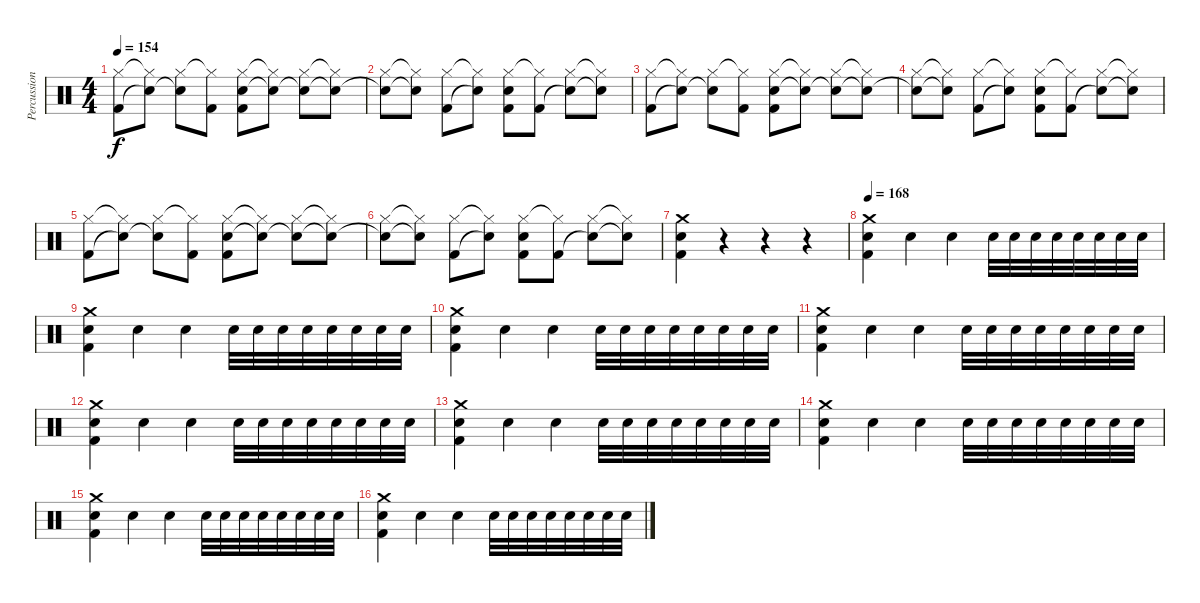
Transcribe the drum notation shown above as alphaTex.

\track ("Percussion" "Percussion") {instrument percussion}
\staff {score}
\articulation defaults
\ts (4 4)
\tempo 154
\clef neutral
\ks c
("Hi-Hat (closed)" "Kick (hit) 2").8{dy f} ("Hi-Hat (closed)"{t} "Snare (hit)"{t}).8 ("Hi-Hat (closed)" "Snare (hit)"{t}).8 ("Hi-Hat (closed)"{t} "Kick (hit) 2").8 ("Hi-Hat (closed)" "Electric Snare (hit)" "Kick (hit) 2").8 ("Hi-Hat (closed)"{t} "Snare (hit)"{t}).8 ("Hi-Hat (closed)" "Snare (hit)"{t}).8 ("Hi-Hat (closed)"{t} "Snare (hit)"{t}).8 |
("Hi-Hat (closed)" "Snare (hit)"{t}).8 ("Hi-Hat (closed)"{t} "Snare (hit)"{t}).8 ("Hi-Hat (closed)" "Kick (hit) 2").8 ("Hi-Hat (closed)"{t} "Snare (hit)"{t}).8 ("Hi-Hat (closed)" "Electric Snare (hit)" "Kick (hit) 2").8 ("Hi-Hat (closed)"{t} "Kick (hit) 2").8 ("Hi-Hat (closed)" "Snare (hit)"{t}).8 ("Hi-Hat (closed)"{t} "Snare (hit)"{t}).8 |
("Hi-Hat (closed)" "Kick (hit) 2").8 ("Hi-Hat (closed)"{t} "Snare (hit)"{t}).8 ("Hi-Hat (closed)" "Snare (hit)"{t}).8 ("Hi-Hat (closed)"{t} "Kick (hit) 2").8 ("Hi-Hat (closed)" "Electric Snare (hit)" "Kick (hit) 2").8 ("Hi-Hat (closed)"{t} "Snare (hit)"{t}).8 ("Hi-Hat (closed)" "Snare (hit)"{t}).8 ("Hi-Hat (closed)"{t} "Snare (hit)"{t}).8 |
("Hi-Hat (closed)" "Snare (hit)"{t}).8 ("Hi-Hat (closed)"{t} "Snare (hit)"{t}).8 ("Hi-Hat (closed)" "Kick (hit) 2").8 ("Hi-Hat (closed)"{t} "Snare (hit)"{t}).8 ("Hi-Hat (closed)" "Electric Snare (hit)" "Kick (hit) 2").8 ("Hi-Hat (closed)"{t} "Kick (hit) 2").8 ("Hi-Hat (closed)" "Snare (hit)"{t}).8 ("Hi-Hat (closed)"{t} "Snare (hit)"{t}).8 |
("Hi-Hat (closed)" "Kick (hit) 2").8 ("Hi-Hat (closed)"{t} "Snare (hit)"{t}).8 ("Hi-Hat (closed)" "Snare (hit)"{t}).8 ("Hi-Hat (closed)"{t} "Kick (hit) 2").8 ("Hi-Hat (closed)" "Electric Snare (hit)" "Kick (hit) 2").8 ("Hi-Hat (closed)"{t} "Snare (hit)"{t}).8 ("Hi-Hat (closed)" "Snare (hit)"{t}).8 ("Hi-Hat (closed)"{t} "Snare (hit)"{t}).8 |
("Hi-Hat (closed)" "Snare (hit)"{t}).8 ("Hi-Hat (closed)"{t} "Snare (hit)"{t}).8 ("Hi-Hat (closed)" "Kick (hit) 2").8 ("Hi-Hat (closed)"{t} "Snare (hit)"{t}).8 ("Hi-Hat (closed)" "Electric Snare (hit)" "Kick (hit) 2").8 ("Hi-Hat (closed)"{t} "Kick (hit) 2").8 ("Hi-Hat (closed)" "Snare (hit)"{t}).8 ("Hi-Hat (closed)"{t} "Snare (hit)"{t}).8 |
("Crash medium (hit)" "Electric Snare (hit)" "Kick (hit) 2").4 r.4 r.4 r.4 |
\tempo 168
("Crash medium (hit)" "Electric Snare (hit)" "Kick (hit) 2").4 "Electric Snare (hit)".4 "Electric Snare (hit)".4 "Electric Snare (hit)".32 "Electric Snare (hit)".32 "Electric Snare (hit)".32 "Electric Snare (hit)".32 "Electric Snare (hit)".32 "Electric Snare (hit)".32 "Electric Snare (hit)".32 "Electric Snare (hit)".32 |
("Crash medium (hit)" "Electric Snare (hit)" "Kick (hit) 2").4 "Electric Snare (hit)".4 "Electric Snare (hit)".4 "Electric Snare (hit)".32 "Electric Snare (hit)".32 "Electric Snare (hit)".32 "Electric Snare (hit)".32 "Electric Snare (hit)".32 "Electric Snare (hit)".32 "Electric Snare (hit)".32 "Electric Snare (hit)".32 |
("Crash medium (hit)" "Electric Snare (hit)" "Kick (hit) 2").4 "Electric Snare (hit)".4 "Electric Snare (hit)".4 "Electric Snare (hit)".32 "Electric Snare (hit)".32 "Electric Snare (hit)".32 "Electric Snare (hit)".32 "Electric Snare (hit)".32 "Electric Snare (hit)".32 "Electric Snare (hit)".32 "Electric Snare (hit)".32 |
("Crash medium (hit)" "Electric Snare (hit)" "Kick (hit) 2").4 "Electric Snare (hit)".4 "Electric Snare (hit)".4 "Electric Snare (hit)".32 "Electric Snare (hit)".32 "Electric Snare (hit)".32 "Electric Snare (hit)".32 "Electric Snare (hit)".32 "Electric Snare (hit)".32 "Electric Snare (hit)".32 "Electric Snare (hit)".32 |
("Crash medium (hit)" "Electric Snare (hit)" "Kick (hit) 2").4 "Electric Snare (hit)".4 "Electric Snare (hit)".4 "Electric Snare (hit)".32 "Electric Snare (hit)".32 "Electric Snare (hit)".32 "Electric Snare (hit)".32 "Electric Snare (hit)".32 "Electric Snare (hit)".32 "Electric Snare (hit)".32 "Electric Snare (hit)".32 |
("Crash medium (hit)" "Electric Snare (hit)" "Kick (hit) 2").4 "Electric Snare (hit)".4 "Electric Snare (hit)".4 "Electric Snare (hit)".32 "Electric Snare (hit)".32 "Electric Snare (hit)".32 "Electric Snare (hit)".32 "Electric Snare (hit)".32 "Electric Snare (hit)".32 "Electric Snare (hit)".32 "Electric Snare (hit)".32 |
("Crash medium (hit)" "Electric Snare (hit)" "Kick (hit) 2").4 "Electric Snare (hit)".4 "Electric Snare (hit)".4 "Electric Snare (hit)".32 "Electric Snare (hit)".32 "Electric Snare (hit)".32 "Electric Snare (hit)".32 "Electric Snare (hit)".32 "Electric Snare (hit)".32 "Electric Snare (hit)".32 "Electric Snare (hit)".32 |
("Crash medium (hit)" "Electric Snare (hit)" "Kick (hit) 2").4 "Electric Snare (hit)".4 "Electric Snare (hit)".4 "Electric Snare (hit)".32 "Electric Snare (hit)".32 "Electric Snare (hit)".32 "Electric Snare (hit)".32 "Electric Snare (hit)".32 "Electric Snare (hit)".32 "Electric Snare (hit)".32 "Electric Snare (hit)".32 |
("Crash medium (hit)" "Electric Snare (hit)" "Kick (hit) 2").4 "Electric Snare (hit)".4 "Electric Snare (hit)".4 "Electric Snare (hit)".32 "Electric Snare (hit)".32 "Electric Snare (hit)".32 "Electric Snare (hit)".32 "Electric Snare (hit)".32 "Electric Snare (hit)".32 "Electric Snare (hit)".32 "Electric Snare (hit)".32
